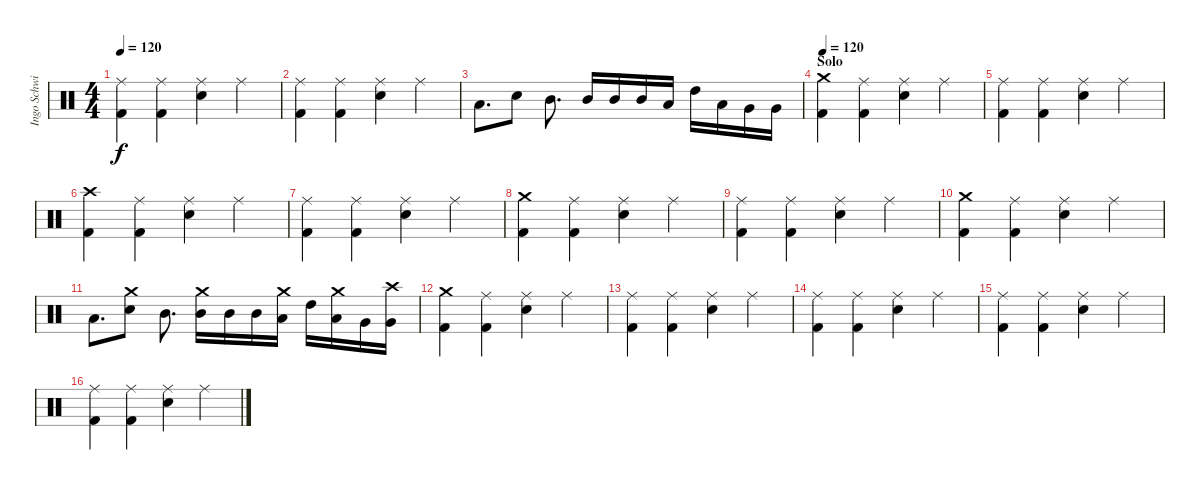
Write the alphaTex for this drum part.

\track ("Ingo Schwichtenberg" "Ingo Schwi") {instrument percussion}
\staff {score}
\articulation defaults
\ts (4 4)
\tempo 120
\clef neutral
\ks c
("Ride (middle)" "Kick (hit) 2").4{dy f} ("Ride (middle)" "Kick (hit) 2").4 ("Ride (middle)" "Snare (hit) 2").4 "Ride (middle)".4 |
("Ride (middle)" "Kick (hit) 2").4 ("Ride (middle)" "Kick (hit) 2").4 ("Ride (middle)" "Snare (hit) 2").4 "Ride (middle)".4 |
"Low Tom (hit)".8{d} "Snare (hit) 2".8 "Mid Tom (hit)".8{d} "Mid Tom (hit)".16 "Mid Tom (hit)".16 "Mid Tom (hit)".16 "Low Tom (hit)".16 "High Tom (hit)".16 "Low Tom (hit)".16 "Very Low Tom (hit)".16 "Very Low Tom (hit)".16 |
\section ("" "Solo")
\tempo 120
("Crash medium (hit)" "Kick (hit) 2").4 ("Ride (middle)" "Kick (hit) 2").4 ("Ride (middle)" "Snare (hit) 2").4 "Ride (middle)".4 |
("Ride (middle)" "Kick (hit) 2").4 ("Ride (middle)" "Kick (hit) 2").4 ("Ride (middle)" "Snare (hit) 2").4 "Ride (middle)".4 |
("Crash high (hit)" "Kick (hit) 2").4 ("Ride (middle)" "Kick (hit) 2").4 ("Ride (middle)" "Snare (hit) 2").4 "Ride (middle)".4 |
("Ride (middle)" "Kick (hit) 2").4 ("Ride (middle)" "Kick (hit) 2").4 ("Ride (middle)" "Snare (hit) 2").4 "Ride (middle)".4 |
("Crash medium (hit)" "Kick (hit) 2").4 ("Ride (middle)" "Kick (hit) 2").4 ("Ride (middle)" "Snare (hit) 2").4 "Ride (middle)".4 |
("Ride (middle)" "Kick (hit) 2").4 ("Ride (middle)" "Kick (hit) 2").4 ("Ride (middle)" "Snare (hit) 2").4 "Ride (middle)".4 |
("Crash medium (hit)" "Kick (hit) 2").4 ("Ride (middle)" "Kick (hit) 2").4 ("Ride (middle)" "Snare (hit) 2").4 "Ride (middle)".4 |
"Low Tom (hit)".8{d} ("Crash medium (hit)" "Snare (hit) 2").8 "Mid Tom (hit)".8{d} ("Crash medium (hit)" "Mid Tom (hit)").16 "Mid Tom (hit)".16 "Mid Tom (hit)".16 ("Crash medium (hit)" "Low Tom (hit)").16 "High Tom (hit)".16 ("Crash medium (hit)" "Low Tom (hit)").16 "Very Low Tom (hit)".16 ("Crash high (hit)" "Very Low Tom (hit)").16 |
("Crash medium (hit)" "Kick (hit) 2").4 ("Ride (middle)" "Kick (hit) 2").4 ("Ride (middle)" "Snare (hit) 2").4 "Ride (middle)".4 |
("Ride (middle)" "Kick (hit) 2").4 ("Ride (middle)" "Kick (hit) 2").4 ("Ride (middle)" "Snare (hit) 2").4 "Ride (middle)".4 |
("Ride (middle)" "Kick (hit) 2").4 ("Ride (middle)" "Kick (hit) 2").4 ("Ride (middle)" "Snare (hit) 2").4 "Ride (middle)".4 |
("Ride (middle)" "Kick (hit) 2").4 ("Ride (middle)" "Kick (hit) 2").4 ("Ride (middle)" "Snare (hit) 2").4 "Ride (middle)".4 |
("Ride (middle)" "Kick (hit) 2").4 ("Ride (middle)" "Kick (hit) 2").4 ("Ride (middle)" "Snare (hit) 2").4 "Ride (middle)".4
